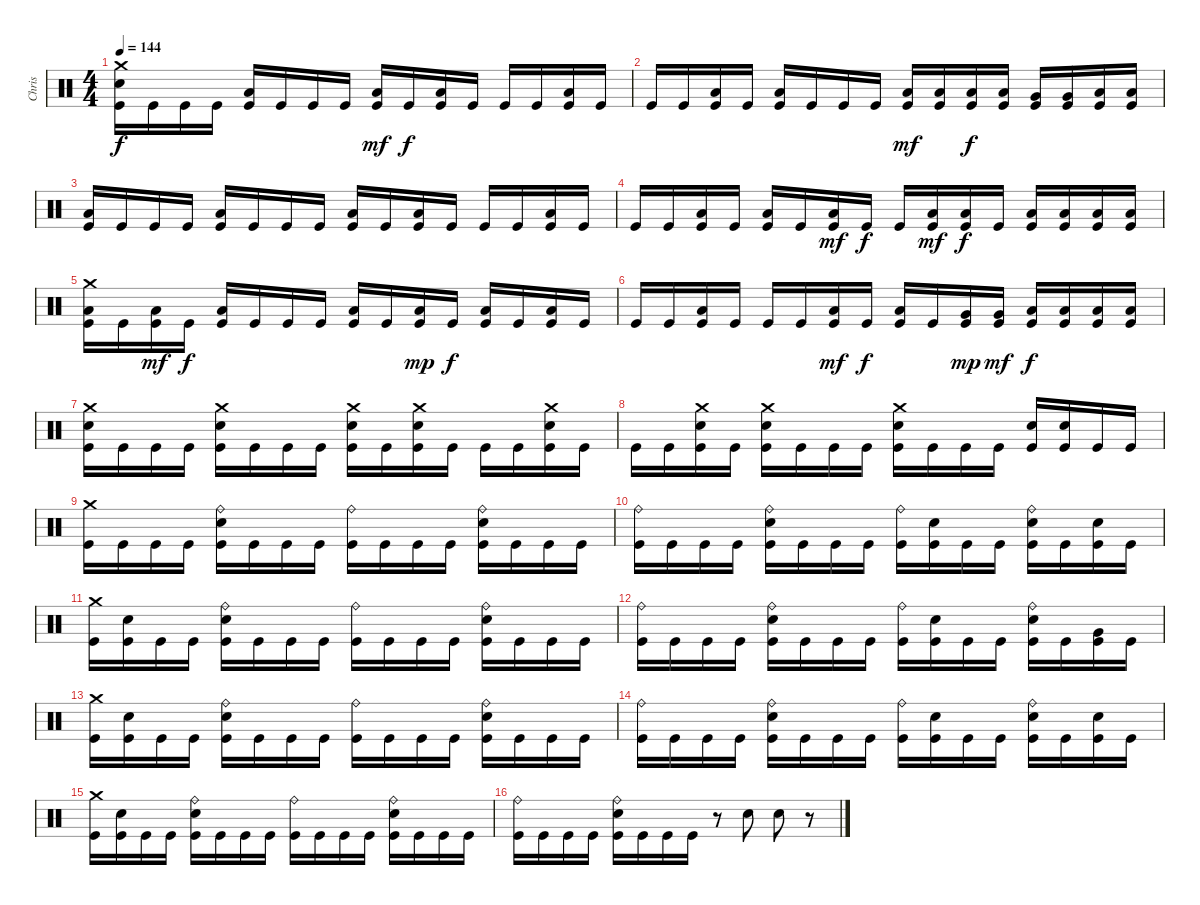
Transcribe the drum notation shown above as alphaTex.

\track ("Chris" "Chris") {instrument percussion}
\staff {score}
\articulation defaults
\ts (4 4)
\tempo 144
\clef neutral
\ks c
("Crash medium (hit)" "Electric Snare (hit)" "Kick (hit)").16{dy f} "Kick (hit)".16 "Kick (hit)".16 "Kick (hit)".16 ("Low Floor Tom (hit)" "Kick (hit)").16 "Kick (hit)".16 "Kick (hit)".16 "Kick (hit)".16 ("Low Floor Tom (hit)" "Kick (hit)").16{dy mf} "Kick (hit)".16{dy f} ("Low Floor Tom (hit)" "Kick (hit)").16 "Kick (hit)".16 "Kick (hit)".16 "Kick (hit)".16 ("Low Floor Tom (hit)" "Kick (hit)").16 "Kick (hit)".16 |
"Kick (hit)".16 "Kick (hit)".16 ("Low Floor Tom (hit)" "Kick (hit)").16 "Kick (hit)".16 ("Low Floor Tom (hit)" "Kick (hit)").16 "Kick (hit)".16 "Kick (hit)".16 "Kick (hit)".16 ("Low Tom (hit)" "Kick (hit)").16{dy mf} ("Low Tom (hit)" "Kick (hit)").16 ("Low Tom (hit)" "Kick (hit)").16{dy f} ("Low Tom (hit)" "Kick (hit)").16 ("Very Low Tom (hit)" "Kick (hit)").16 ("Very Low Tom (hit)" "Kick (hit)").16 ("Low Floor Tom (hit)" "Kick (hit)").16 ("Low Floor Tom (hit)" "Kick (hit)").16 |
("Low Floor Tom (hit)" "Kick (hit)").16 "Kick (hit)".16 "Kick (hit)".16 "Kick (hit)".16 ("Low Floor Tom (hit)" "Kick (hit)").16 "Kick (hit)".16 "Kick (hit)".16 "Kick (hit)".16 ("Low Floor Tom (hit)" "Kick (hit)").16 "Kick (hit)".16 ("Low Floor Tom (hit)" "Kick (hit)").16 "Kick (hit)".16 "Kick (hit)".16 "Kick (hit)".16 ("Low Floor Tom (hit)" "Kick (hit)").16 "Kick (hit)".16 |
"Kick (hit)".16 "Kick (hit)".16 ("Low Floor Tom (hit)" "Kick (hit)").16 "Kick (hit)".16 ("Low Floor Tom (hit)" "Kick (hit)").16 "Kick (hit)".16 ("Low Floor Tom (hit)" "Kick (hit)").16{dy mf} "Kick (hit)".16{dy f} "Kick (hit)".16 ("Low Floor Tom (hit)" "Kick (hit)").16{dy mf} ("Low Floor Tom (hit)" "Kick (hit)").16{dy f} "Kick (hit)".16 ("Low Floor Tom (hit)" "Kick (hit)").16 ("Low Floor Tom (hit)" "Kick (hit)").16 ("Low Floor Tom (hit)" "Kick (hit)").16 ("Low Floor Tom (hit)" "Kick (hit)").16 |
("Crash medium (hit)" "Low Floor Tom (hit)" "Kick (hit)").16 "Kick (hit)".16 ("Low Floor Tom (hit)" "Kick (hit)").16{dy mf} "Kick (hit)".16{dy f} ("Low Floor Tom (hit)" "Kick (hit)").16 "Kick (hit)".16 "Kick (hit)".16 "Kick (hit)".16 ("Low Floor Tom (hit)" "Kick (hit)").16 "Kick (hit)".16 ("Low Floor Tom (hit)" "Kick (hit)").16{dy mp} "Kick (hit)".16{dy f} ("Low Floor Tom (hit)" "Kick (hit)").16 "Kick (hit)".16 ("Low Floor Tom (hit)" "Kick (hit)").16 "Kick (hit)".16 |
"Kick (hit)".16 "Kick (hit)".16 ("Low Floor Tom (hit)" "Kick (hit)").16 "Kick (hit)".16 "Kick (hit)".16 "Kick (hit)".16 ("Low Floor Tom (hit)" "Kick (hit)").16{dy mf} "Kick (hit)".16{dy f} ("Low Floor Tom (hit)" "Kick (hit)").16 "Kick (hit)".16 ("Very Low Tom (hit)" "Kick (hit)").16{dy mp} ("Very Low Tom (hit)" "Kick (hit)").16{dy mf} ("Low Floor Tom (hit)" "Kick (hit)").16{dy f} ("Low Floor Tom (hit)" "Kick (hit)").16 ("Low Floor Tom (hit)" "Kick (hit)").16 ("Low Floor Tom (hit)" "Kick (hit)").16 |
("Crash medium (hit)" "Electric Snare (hit)" "Kick (hit)").16 "Kick (hit)".16 "Kick (hit)".16 "Kick (hit)".16 ("Crash medium (hit)" "Electric Snare (hit)" "Kick (hit)").16 "Kick (hit)".16 "Kick (hit)".16 "Kick (hit)".16 ("Crash medium (hit)" "Electric Snare (hit)" "Kick (hit)").16 "Kick (hit)".16 ("Crash medium (hit)" "Electric Snare (hit)" "Kick (hit)").16 "Kick (hit)".16 "Kick (hit)".16 "Kick (hit)".16 ("Crash medium (hit)" "Electric Snare (hit)" "Kick (hit)").16 "Kick (hit)".16 |
"Kick (hit)".16 "Kick (hit)".16 ("Crash medium (hit)" "Electric Snare (hit)" "Kick (hit)").16 "Kick (hit)".16 ("Crash medium (hit)" "Electric Snare (hit)" "Kick (hit)").16 "Kick (hit)".16 "Kick (hit)".16 "Kick (hit)".16 ("Crash medium (hit)" "Electric Snare (hit)" "Kick (hit)").16 "Kick (hit)".16 "Kick (hit)".16 "Kick (hit)".16 ("Electric Snare (hit)" "Kick (hit)").16 ("Electric Snare (hit)" "Kick (hit)").16 "Kick (hit)".16 "Kick (hit)".16 |
("Crash medium (hit)" "Kick (hit)").16 "Kick (hit)".16 "Kick (hit)".16 "Kick (hit)".16 ("Ride (bell)" "Electric Snare (hit)" "Kick (hit)").16 "Kick (hit)".16 "Kick (hit)".16 "Kick (hit)".16 ("Ride (bell)" "Kick (hit)").16 "Kick (hit)".16 "Kick (hit)".16 "Kick (hit)".16 ("Ride (bell)" "Electric Snare (hit)" "Kick (hit)").16 "Kick (hit)".16 "Kick (hit)".16 "Kick (hit)".16 |
("Ride (bell)" "Kick (hit)").16 "Kick (hit)".16 "Kick (hit)".16 "Kick (hit)".16 ("Ride (bell)" "Electric Snare (hit)" "Kick (hit)").16 "Kick (hit)".16 "Kick (hit)".16 "Kick (hit)".16 ("Ride (bell)" "Kick (hit)").16 ("Electric Snare (hit)" "Kick (hit)").16 "Kick (hit)".16 "Kick (hit)".16 ("Ride (bell)" "Electric Snare (hit)" "Kick (hit)").16 "Kick (hit)".16 ("Electric Snare (hit)" "Kick (hit)").16 "Kick (hit)".16 |
("Crash medium (hit)" "Kick (hit)").16 ("Electric Snare (hit)" "Kick (hit)").16 "Kick (hit)".16 "Kick (hit)".16 ("Ride (bell)" "Electric Snare (hit)" "Kick (hit)").16 "Kick (hit)".16 "Kick (hit)".16 "Kick (hit)".16 ("Ride (bell)" "Kick (hit)").16 "Kick (hit)".16 "Kick (hit)".16 "Kick (hit)".16 ("Ride (bell)" "Electric Snare (hit)" "Kick (hit)").16 "Kick (hit)".16 "Kick (hit)".16 "Kick (hit)".16 |
("Ride (bell)" "Kick (hit)").16 "Kick (hit)".16 "Kick (hit)".16 "Kick (hit)".16 ("Ride (bell)" "Electric Snare (hit)" "Kick (hit)").16 "Kick (hit)".16 "Kick (hit)".16 "Kick (hit)".16 ("Ride (bell)" "Kick (hit)").16 ("Electric Snare (hit)" "Kick (hit)").16 "Kick (hit)".16 "Kick (hit)".16 ("Ride (bell)" "Electric Snare (hit)" "Kick (hit)").16 "Kick (hit)".16 ("Very Low Tom (hit)" "Kick (hit)").16 "Kick (hit)".16 |
("Crash medium (hit)" "Kick (hit)").16 ("Electric Snare (hit)" "Kick (hit)").16 "Kick (hit)".16 "Kick (hit)".16 ("Ride (bell)" "Electric Snare (hit)" "Kick (hit)").16 "Kick (hit)".16 "Kick (hit)".16 "Kick (hit)".16 ("Ride (bell)" "Kick (hit)").16 "Kick (hit)".16 "Kick (hit)".16 "Kick (hit)".16 ("Ride (bell)" "Electric Snare (hit)" "Kick (hit)").16 "Kick (hit)".16 "Kick (hit)".16 "Kick (hit)".16 |
("Ride (bell)" "Kick (hit)").16 "Kick (hit)".16 "Kick (hit)".16 "Kick (hit)".16 ("Ride (bell)" "Electric Snare (hit)" "Kick (hit)").16 "Kick (hit)".16 "Kick (hit)".16 "Kick (hit)".16 ("Ride (bell)" "Kick (hit)").16 ("Electric Snare (hit)" "Kick (hit)").16 "Kick (hit)".16 "Kick (hit)".16 ("Ride (bell)" "Electric Snare (hit)" "Kick (hit)").16 "Kick (hit)".16 ("Electric Snare (hit)" "Kick (hit)").16 "Kick (hit)".16 |
("Crash medium (hit)" "Kick (hit)").16 ("Electric Snare (hit)" "Kick (hit)").16 "Kick (hit)".16 "Kick (hit)".16 ("Ride (bell)" "Electric Snare (hit)" "Kick (hit)").16 "Kick (hit)".16 "Kick (hit)".16 "Kick (hit)".16 ("Ride (bell)" "Kick (hit)").16 "Kick (hit)".16 "Kick (hit)".16 "Kick (hit)".16 ("Ride (bell)" "Electric Snare (hit)" "Kick (hit)").16 "Kick (hit)".16 "Kick (hit)".16 "Kick (hit)".16 |
("Ride (bell)" "Kick (hit)").16 "Kick (hit)".16 "Kick (hit)".16 "Kick (hit)".16 ("Ride (bell)" "Electric Snare (hit)" "Kick (hit)").16 "Kick (hit)".16 "Kick (hit)".16 "Kick (hit)".16 r.8 "Electric Snare (hit)".8 "Electric Snare (hit)".8 r.8
